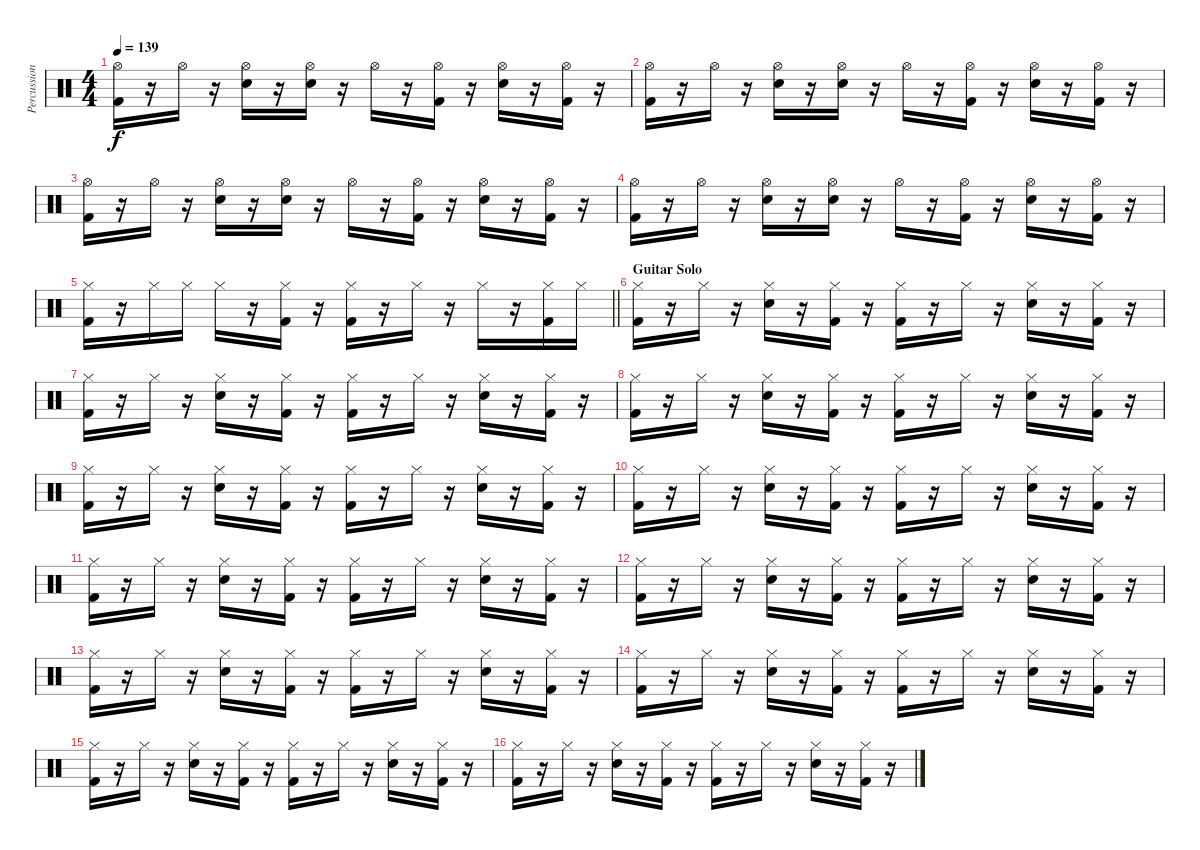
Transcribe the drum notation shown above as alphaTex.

\track ("Percussion" "Percussion") {instrument percussion}
\staff {score}
\articulation defaults
\ts (4 4)
\tempo 139
\clef neutral
\ks c
("Hi-Hat (open)" "Kick (hit) 2").16{dy f} r.16 "Hi-Hat (open)".16 r.16 ("Hi-Hat (open)" "Snare (hit) 2").16 r.16 ("Hi-Hat (open)" "Snare (hit) 2").16 r.16 "Hi-Hat (open)".16 r.16 ("Hi-Hat (open)" "Kick (hit) 2").16 r.16 ("Hi-Hat (open)" "Snare (hit) 2").16 r.16 ("Hi-Hat (open)" "Kick (hit) 2").16 r.16 |
("Hi-Hat (open)" "Kick (hit) 2").16 r.16 "Hi-Hat (open)".16 r.16 ("Hi-Hat (open)" "Snare (hit) 2").16 r.16 ("Hi-Hat (open)" "Snare (hit) 2").16 r.16 "Hi-Hat (open)".16 r.16 ("Hi-Hat (open)" "Kick (hit) 2").16 r.16 ("Hi-Hat (open)" "Snare (hit) 2").16 r.16 ("Hi-Hat (open)" "Kick (hit) 2").16 r.16 |
("Hi-Hat (open)" "Kick (hit) 2").16 r.16 "Hi-Hat (open)".16 r.16 ("Hi-Hat (open)" "Snare (hit) 2").16 r.16 ("Hi-Hat (open)" "Snare (hit) 2").16 r.16 "Hi-Hat (open)".16 r.16 ("Hi-Hat (open)" "Kick (hit) 2").16 r.16 ("Hi-Hat (open)" "Snare (hit) 2").16 r.16 ("Hi-Hat (open)" "Kick (hit) 2").16 r.16 |
("Hi-Hat (open)" "Kick (hit) 2").16 r.16 "Hi-Hat (open)".16 r.16 ("Hi-Hat (open)" "Snare (hit) 2").16 r.16 ("Hi-Hat (open)" "Snare (hit) 2").16 r.16 "Hi-Hat (open)".16 r.16 ("Hi-Hat (open)" "Kick (hit) 2").16 r.16 ("Hi-Hat (open)" "Snare (hit) 2").16 r.16 ("Hi-Hat (open)" "Kick (hit) 2").16 r.16 |
\barLineRight lightlight
("Hi-Hat (closed)" "Kick (hit) 2").16 r.16 "Hi-Hat (closed)".16 "Hi-Hat (closed)".16 "Hi-Hat (closed)".16 r.16 ("Hi-Hat (closed)" "Kick (hit) 2").16 r.16 ("Hi-Hat (closed)" "Kick (hit) 2").16 r.16 "Hi-Hat (closed)".16 r.16 "Hi-Hat (closed)".16 r.16 ("Hi-Hat (closed)" "Kick (hit) 2").16 "Hi-Hat (closed)".16 |
\section ("" "Guitar Solo")
("Hi-Hat (closed)" "Kick (hit) 2").16 r.16 "Hi-Hat (closed)".16 r.16 ("Hi-Hat (closed)" "Snare (hit) 2").16 r.16 ("Hi-Hat (closed)" "Kick (hit) 2").16 r.16 ("Hi-Hat (closed)" "Kick (hit) 2").16 r.16 "Hi-Hat (closed)".16 r.16 ("Hi-Hat (closed)" "Snare (hit) 2").16 r.16 ("Hi-Hat (closed)" "Kick (hit) 2").16 r.16 |
("Hi-Hat (closed)" "Kick (hit) 2").16 r.16 "Hi-Hat (closed)".16 r.16 ("Hi-Hat (closed)" "Snare (hit) 2").16 r.16 ("Hi-Hat (closed)" "Kick (hit) 2").16 r.16 ("Hi-Hat (closed)" "Kick (hit) 2").16 r.16 "Hi-Hat (closed)".16 r.16 ("Hi-Hat (closed)" "Snare (hit) 2").16 r.16 ("Hi-Hat (closed)" "Kick (hit) 2").16 r.16 |
("Hi-Hat (closed)" "Kick (hit) 2").16 r.16 "Hi-Hat (closed)".16 r.16 ("Hi-Hat (closed)" "Snare (hit) 2").16 r.16 ("Hi-Hat (closed)" "Kick (hit) 2").16 r.16 ("Hi-Hat (closed)" "Kick (hit) 2").16 r.16 "Hi-Hat (closed)".16 r.16 ("Hi-Hat (closed)" "Snare (hit) 2").16 r.16 ("Hi-Hat (closed)" "Kick (hit) 2").16 r.16 |
("Hi-Hat (closed)" "Kick (hit) 2").16 r.16 "Hi-Hat (closed)".16 r.16 ("Hi-Hat (closed)" "Snare (hit) 2").16 r.16 ("Hi-Hat (closed)" "Kick (hit) 2").16 r.16 ("Hi-Hat (closed)" "Kick (hit) 2").16 r.16 "Hi-Hat (closed)".16 r.16 ("Hi-Hat (closed)" "Snare (hit) 2").16 r.16 ("Hi-Hat (closed)" "Kick (hit) 2").16 r.16 |
("Hi-Hat (closed)" "Kick (hit) 2").16 r.16 "Hi-Hat (closed)".16 r.16 ("Hi-Hat (closed)" "Snare (hit) 2").16 r.16 ("Hi-Hat (closed)" "Kick (hit) 2").16 r.16 ("Hi-Hat (closed)" "Kick (hit) 2").16 r.16 "Hi-Hat (closed)".16 r.16 ("Hi-Hat (closed)" "Snare (hit) 2").16 r.16 ("Hi-Hat (closed)" "Kick (hit) 2").16 r.16 |
("Hi-Hat (closed)" "Kick (hit) 2").16 r.16 "Hi-Hat (closed)".16 r.16 ("Hi-Hat (closed)" "Snare (hit) 2").16 r.16 ("Hi-Hat (closed)" "Kick (hit) 2").16 r.16 ("Hi-Hat (closed)" "Kick (hit) 2").16 r.16 "Hi-Hat (closed)".16 r.16 ("Hi-Hat (closed)" "Snare (hit) 2").16 r.16 ("Hi-Hat (closed)" "Kick (hit) 2").16 r.16 |
("Hi-Hat (closed)" "Kick (hit) 2").16 r.16 "Hi-Hat (closed)".16 r.16 ("Hi-Hat (closed)" "Snare (hit) 2").16 r.16 ("Hi-Hat (closed)" "Kick (hit) 2").16 r.16 ("Hi-Hat (closed)" "Kick (hit) 2").16 r.16 "Hi-Hat (closed)".16 r.16 ("Hi-Hat (closed)" "Snare (hit) 2").16 r.16 ("Hi-Hat (closed)" "Kick (hit) 2").16 r.16 |
("Hi-Hat (closed)" "Kick (hit) 2").16 r.16 "Hi-Hat (closed)".16 r.16 ("Hi-Hat (closed)" "Snare (hit) 2").16 r.16 ("Hi-Hat (closed)" "Kick (hit) 2").16 r.16 ("Hi-Hat (closed)" "Kick (hit) 2").16 r.16 "Hi-Hat (closed)".16 r.16 ("Hi-Hat (closed)" "Snare (hit) 2").16 r.16 ("Hi-Hat (closed)" "Kick (hit) 2").16 r.16 |
("Hi-Hat (closed)" "Kick (hit) 2").16 r.16 "Hi-Hat (closed)".16 r.16 ("Hi-Hat (closed)" "Snare (hit) 2").16 r.16 ("Hi-Hat (closed)" "Kick (hit) 2").16 r.16 ("Hi-Hat (closed)" "Kick (hit) 2").16 r.16 "Hi-Hat (closed)".16 r.16 ("Hi-Hat (closed)" "Snare (hit) 2").16 r.16 ("Hi-Hat (closed)" "Kick (hit) 2").16 r.16 |
("Hi-Hat (closed)" "Kick (hit) 2").16 r.16 "Hi-Hat (closed)".16 r.16 ("Hi-Hat (closed)" "Snare (hit) 2").16 r.16 ("Hi-Hat (closed)" "Kick (hit) 2").16 r.16 ("Hi-Hat (closed)" "Kick (hit) 2").16 r.16 "Hi-Hat (closed)".16 r.16 ("Hi-Hat (closed)" "Snare (hit) 2").16 r.16 ("Hi-Hat (closed)" "Kick (hit) 2").16 r.16 |
("Hi-Hat (closed)" "Kick (hit) 2").16 r.16 "Hi-Hat (closed)".16 r.16 ("Hi-Hat (closed)" "Snare (hit) 2").16 r.16 ("Hi-Hat (closed)" "Kick (hit) 2").16 r.16 ("Hi-Hat (closed)" "Kick (hit) 2").16 r.16 "Hi-Hat (closed)".16 r.16 ("Hi-Hat (closed)" "Snare (hit) 2").16 r.16 ("Hi-Hat (closed)" "Kick (hit) 2").16 r.16
